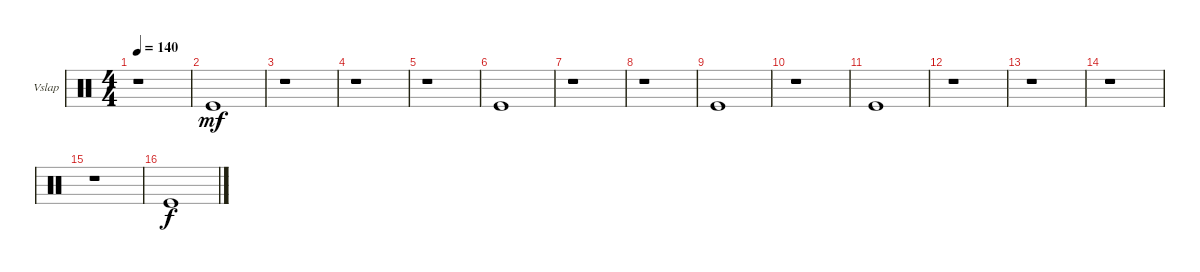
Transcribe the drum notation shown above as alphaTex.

\defaultSystemsLayout 4
\bracketExtendMode groupsimilarinstruments
\firstSystemTrackNameOrientation horizontal
\otherSystemsTrackNameOrientation horizontal
\track ("Vibraslap" "Vslap") {instrument percussion}
\staff {score}
\articulation defaults
\ts (4 4)
\tempo 140
\clef neutral
\scale
0.25
\ks c
r.1{dy mf} |
\scale
0.25 "Kick (hit)".1 |
\scale
0.25 r.1 |
\scale
0.25 r.1 |
\scale
0.25 r.1 |
\scale
0.25 "Kick (hit)".1 |
\scale
0.25 r.1 |
\scale
0.25 r.1 |
\scale
0.25 "Kick (hit)".1 |
\scale
0.25 r.1 |
\scale
0.25 "Kick (hit)".1 |
\scale
0.25 r.1 |
\scale
0.25 r.1 |
\scale
0.25 r.1 |
\scale
0.25 r.1 |
\scale
0.25 "Kick (hit)".1{dy f}
